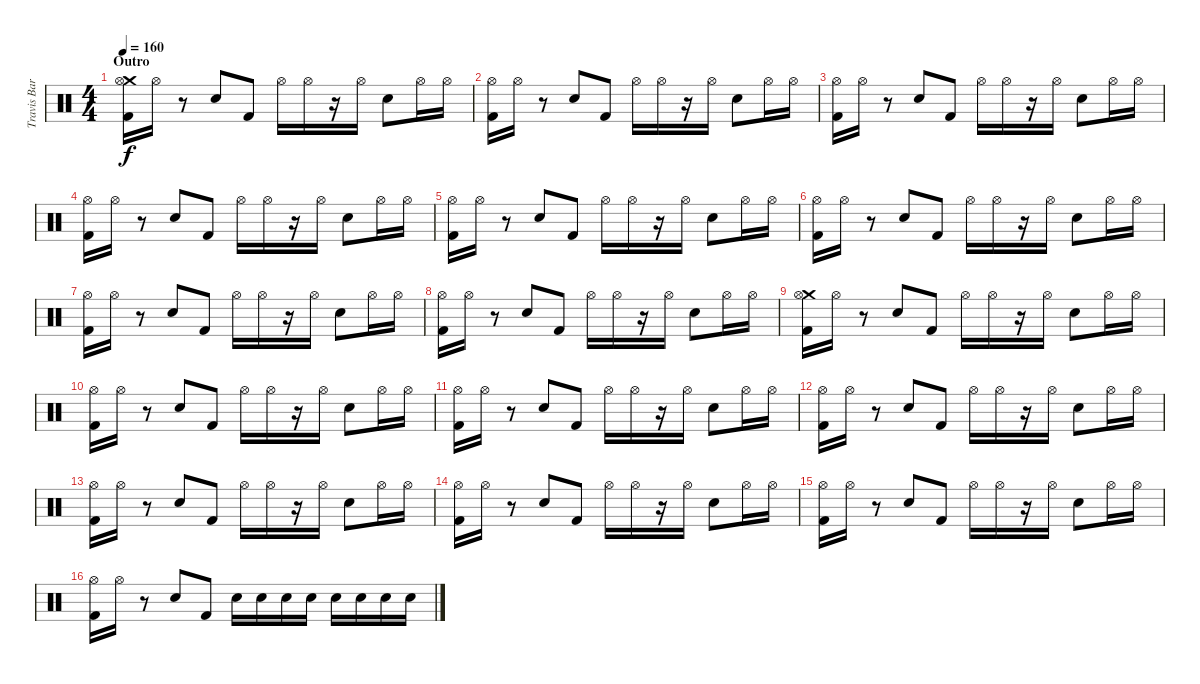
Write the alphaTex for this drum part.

\track ("Travis Barker Drums" "Travis Bar") {instrument percussion}
\staff {score}
\articulation defaults
\ts (4 4)
\section ("" "Outro")
\tempo 160
\clef neutral
\ks c
("Crash medium (hit)" "Hi-Hat (open)" "Kick (hit) 2").16{dy f} "Hi-Hat (open)".16 r.8 "Electric Snare (hit)".8 "Kick (hit) 2".8 "Hi-Hat (open)".16 "Hi-Hat (open)".16 r.16 "Hi-Hat (open)".16 "Electric Snare (hit)".8 "Hi-Hat (open)".16 "Hi-Hat (open)".16 |
("Hi-Hat (open)" "Kick (hit) 2").16 "Hi-Hat (open)".16 r.8 "Electric Snare (hit)".8 "Kick (hit) 2".8 "Hi-Hat (open)".16 "Hi-Hat (open)".16 r.16 "Hi-Hat (open)".16 "Electric Snare (hit)".8 "Hi-Hat (open)".16 "Hi-Hat (open)".16 |
("Hi-Hat (open)" "Kick (hit) 2").16 "Hi-Hat (open)".16 r.8 "Electric Snare (hit)".8 "Kick (hit) 2".8 "Hi-Hat (open)".16 "Hi-Hat (open)".16 r.16 "Hi-Hat (open)".16 "Electric Snare (hit)".8 "Hi-Hat (open)".16 "Hi-Hat (open)".16 |
("Hi-Hat (open)" "Kick (hit) 2").16 "Hi-Hat (open)".16 r.8 "Electric Snare (hit)".8 "Kick (hit) 2".8 "Hi-Hat (open)".16 "Hi-Hat (open)".16 r.16 "Hi-Hat (open)".16 "Electric Snare (hit)".8 "Hi-Hat (open)".16 "Hi-Hat (open)".16 |
("Hi-Hat (open)" "Kick (hit) 2").16 "Hi-Hat (open)".16 r.8 "Electric Snare (hit)".8 "Kick (hit) 2".8 "Hi-Hat (open)".16 "Hi-Hat (open)".16 r.16 "Hi-Hat (open)".16 "Electric Snare (hit)".8 "Hi-Hat (open)".16 "Hi-Hat (open)".16 |
("Hi-Hat (open)" "Kick (hit) 2").16 "Hi-Hat (open)".16 r.8 "Electric Snare (hit)".8 "Kick (hit) 2".8 "Hi-Hat (open)".16 "Hi-Hat (open)".16 r.16 "Hi-Hat (open)".16 "Electric Snare (hit)".8 "Hi-Hat (open)".16 "Hi-Hat (open)".16 |
("Hi-Hat (open)" "Kick (hit) 2").16 "Hi-Hat (open)".16 r.8 "Electric Snare (hit)".8 "Kick (hit) 2".8 "Hi-Hat (open)".16 "Hi-Hat (open)".16 r.16 "Hi-Hat (open)".16 "Electric Snare (hit)".8 "Hi-Hat (open)".16 "Hi-Hat (open)".16 |
("Hi-Hat (open)" "Kick (hit) 2").16 "Hi-Hat (open)".16 r.8 "Electric Snare (hit)".8 "Kick (hit) 2".8 "Hi-Hat (open)".16 "Hi-Hat (open)".16 r.16 "Hi-Hat (open)".16 "Electric Snare (hit)".8 "Hi-Hat (open)".16 "Hi-Hat (open)".16 |
("Crash medium (hit)" "Hi-Hat (open)" "Kick (hit) 2").16 "Hi-Hat (open)".16 r.8 "Electric Snare (hit)".8 "Kick (hit) 2".8 "Hi-Hat (open)".16 "Hi-Hat (open)".16 r.16 "Hi-Hat (open)".16 "Electric Snare (hit)".8 "Hi-Hat (open)".16 "Hi-Hat (open)".16 |
("Hi-Hat (open)" "Kick (hit) 2").16 "Hi-Hat (open)".16 r.8 "Electric Snare (hit)".8 "Kick (hit) 2".8 "Hi-Hat (open)".16 "Hi-Hat (open)".16 r.16 "Hi-Hat (open)".16 "Electric Snare (hit)".8 "Hi-Hat (open)".16 "Hi-Hat (open)".16 |
("Hi-Hat (open)" "Kick (hit) 2").16 "Hi-Hat (open)".16 r.8 "Electric Snare (hit)".8 "Kick (hit) 2".8 "Hi-Hat (open)".16 "Hi-Hat (open)".16 r.16 "Hi-Hat (open)".16 "Electric Snare (hit)".8 "Hi-Hat (open)".16 "Hi-Hat (open)".16 |
("Hi-Hat (open)" "Kick (hit) 2").16 "Hi-Hat (open)".16 r.8 "Electric Snare (hit)".8 "Kick (hit) 2".8 "Hi-Hat (open)".16 "Hi-Hat (open)".16 r.16 "Hi-Hat (open)".16 "Electric Snare (hit)".8 "Hi-Hat (open)".16 "Hi-Hat (open)".16 |
("Hi-Hat (open)" "Kick (hit) 2").16 "Hi-Hat (open)".16 r.8 "Electric Snare (hit)".8 "Kick (hit) 2".8 "Hi-Hat (open)".16 "Hi-Hat (open)".16 r.16 "Hi-Hat (open)".16 "Electric Snare (hit)".8 "Hi-Hat (open)".16 "Hi-Hat (open)".16 |
("Hi-Hat (open)" "Kick (hit) 2").16 "Hi-Hat (open)".16 r.8 "Electric Snare (hit)".8 "Kick (hit) 2".8 "Hi-Hat (open)".16 "Hi-Hat (open)".16 r.16 "Hi-Hat (open)".16 "Electric Snare (hit)".8 "Hi-Hat (open)".16 "Hi-Hat (open)".16 |
("Hi-Hat (open)" "Kick (hit) 2").16 "Hi-Hat (open)".16 r.8 "Electric Snare (hit)".8 "Kick (hit) 2".8 "Hi-Hat (open)".16 "Hi-Hat (open)".16 r.16 "Hi-Hat (open)".16 "Electric Snare (hit)".8 "Hi-Hat (open)".16 "Hi-Hat (open)".16 |
("Hi-Hat (open)" "Kick (hit) 2").16 "Hi-Hat (open)".16 r.8 "Electric Snare (hit)".8 "Kick (hit) 2".8 "Electric Snare (hit)".16 "Electric Snare (hit)".16 "Electric Snare (hit)".16 "Electric Snare (hit)".16 "Electric Snare (hit)".16 "Electric Snare (hit)".16 "Electric Snare (hit)".16 "Electric Snare (hit)".16
